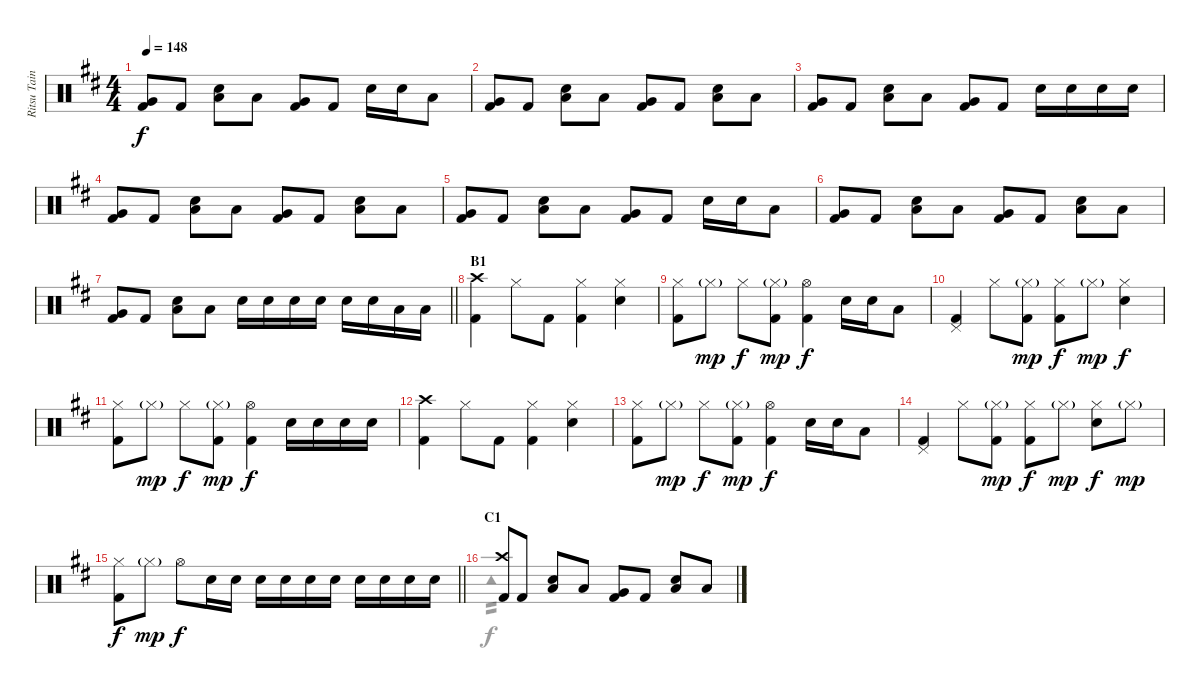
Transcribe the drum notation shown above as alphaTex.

\track ("Ritsu Tainaka" "Ritsu Tain") {instrument percussion}
\staff {score}
\articulation defaults
\voice
\ts (4 4)
\tempo 148
\clef neutral
\ks d
("Very Low Tom (hit)" "Kick (hit) 2").8{dy f} "Kick (hit) 2".8 ("Snare (hit) 2" "Low Floor Tom (hit)").8 "Low Tom (hit)".8 ("Very Low Tom (hit)" "Kick (hit) 2").8 "Kick (hit) 2".8 "Snare (hit) 2".16 "Snare (hit) 2".16 "Low Tom (hit)".8 |
("Very Low Tom (hit)" "Kick (hit) 2").8 "Kick (hit) 2".8 ("Snare (hit) 2" "Low Floor Tom (hit)").8 "Low Tom (hit)".8 ("Very Low Tom (hit)" "Kick (hit) 2").8 "Kick (hit) 2".8 ("Snare (hit) 2" "Low Floor Tom (hit)").8 "Low Tom (hit)".8 |
("Very Low Tom (hit)" "Kick (hit) 2").8 "Kick (hit) 2".8 ("Snare (hit) 2" "Low Floor Tom (hit)").8 "Low Tom (hit)".8 ("Very Low Tom (hit)" "Kick (hit) 2").8 "Kick (hit) 2".8 "Snare (hit) 2".16 "Snare (hit) 2".16 "Snare (hit) 2".16 "Snare (hit) 2".16 |
("Very Low Tom (hit)" "Kick (hit) 2").8 "Kick (hit) 2".8 ("Snare (hit) 2" "Low Floor Tom (hit)").8 "Low Tom (hit)".8 ("Very Low Tom (hit)" "Kick (hit) 2").8 "Kick (hit) 2".8 ("Snare (hit) 2" "Low Floor Tom (hit)").8 "Low Tom (hit)".8 |
("Very Low Tom (hit)" "Kick (hit) 2").8 "Kick (hit) 2".8 ("Snare (hit) 2" "Low Floor Tom (hit)").8 "Low Tom (hit)".8 ("Very Low Tom (hit)" "Kick (hit) 2").8 "Kick (hit) 2".8 "Snare (hit) 2".16 "Snare (hit) 2".16 "Low Tom (hit)".8 |
("Very Low Tom (hit)" "Kick (hit) 2").8 "Kick (hit) 2".8 ("Snare (hit) 2" "Low Floor Tom (hit)").8 "Low Tom (hit)".8 ("Very Low Tom (hit)" "Kick (hit) 2").8 "Kick (hit) 2".8 ("Snare (hit) 2" "Low Floor Tom (hit)").8 "Low Tom (hit)".8 |
\barLineRight lightlight
("Very Low Tom (hit)" "Kick (hit) 2").8 "Kick (hit) 2".8 ("Snare (hit) 2" "Low Floor Tom (hit)").8 "Low Tom (hit)".8 "Snare (hit) 2".16 "Snare (hit) 2".16 "Snare (hit) 2".16 "Snare (hit) 2".16 "Snare (hit) 2".16 "Snare (hit) 2".16 "Low Tom (hit)".16 "Low Tom (hit)".16 |
\section ("" "B1")
("Crash high (hit)" "Kick (hit) 2").4 "Hi-Hat (closed)".8 "Kick (hit) 2".8 ("Hi-Hat (closed)" "Kick (hit) 2").4 ("Hi-Hat (closed)" "Snare (hit) 2").4 |
("Hi-Hat (closed)" "Kick (hit) 2").8 "Hi-Hat (closed)"{g}.8{dy mp} "Hi-Hat (closed)".8{dy f} ("Hi-Hat (closed)"{g} "Kick (hit) 2").8{dy mp} ("Hi-Hat (open)" "Kick (hit) 2").4{dy f} "Snare (hit) 2".16 "Snare (hit) 2".16 "Low Tom (hit)".8 |
("Pedal Hi-Hat (hit)" "Kick (hit) 2").4 "Hi-Hat (closed)".8 ("Hi-Hat (closed)"{g} "Kick (hit) 2").8{dy mp} ("Hi-Hat (closed)" "Kick (hit) 2").8{dy f} "Hi-Hat (closed)"{g}.8{dy mp} ("Hi-Hat (closed)" "Snare (hit) 2").4{dy f} |
("Hi-Hat (closed)" "Kick (hit) 2").8 "Hi-Hat (closed)"{g}.8{dy mp} "Hi-Hat (closed)".8{dy f} ("Hi-Hat (closed)"{g} "Kick (hit) 2").8{dy mp} ("Hi-Hat (open)" "Kick (hit) 2").4{dy f} "Snare (hit) 2".16 "Snare (hit) 2".16 "Snare (hit) 2".16 "Snare (hit) 2".16 |
("Crash high (hit)" "Kick (hit) 2").4 "Hi-Hat (closed)".8 "Kick (hit) 2".8 ("Hi-Hat (closed)" "Kick (hit) 2").4 ("Hi-Hat (closed)" "Snare (hit) 2").4 |
("Hi-Hat (closed)" "Kick (hit) 2").8 "Hi-Hat (closed)"{g}.8{dy mp} "Hi-Hat (closed)".8{dy f} ("Hi-Hat (closed)"{g} "Kick (hit) 2").8{dy mp} ("Hi-Hat (open)" "Kick (hit) 2").4{dy f} "Snare (hit) 2".16 "Snare (hit) 2".16 "Low Tom (hit)".8 |
("Pedal Hi-Hat (hit)" "Kick (hit) 2").4 "Hi-Hat (closed)".8 ("Hi-Hat (closed)"{g} "Kick (hit) 2").8{dy mp} ("Hi-Hat (closed)" "Kick (hit) 2").8{dy f} "Hi-Hat (closed)"{g}.8{dy mp} ("Hi-Hat (closed)" "Snare (hit) 2").8{dy f} "Hi-Hat (closed)"{g}.8{dy mp} |
\barLineRight lightlight
("Hi-Hat (closed)" "Kick (hit) 2").8{dy f} "Hi-Hat (closed)"{g}.8{dy mp} "Hi-Hat (open)".8{dy f} "Snare (hit) 2".16 "Snare (hit) 2".16 "Snare (hit) 2".16 "Snare (hit) 2".16 "Snare (hit) 2".16 "Snare (hit) 2".16 "Snare (hit) 2".16 "Snare (hit) 2".16 "Snare (hit) 2".16 "Snare (hit) 2".16 |
\section ("" "C1")
("Crash high (hit)" "Kick (hit) 2").8 "Kick (hit) 2".8 ("Snare (hit) 2" "Low Floor Tom (hit)").8 "Low Tom (hit)".8 ("Very Low Tom (hit)" "Kick (hit) 2").8 "Kick (hit) 2".8 ("Snare (hit) 2" "Low Floor Tom (hit)").8 "Low Tom (hit)".8
\voice
\clef neutral
\ottava regular
\simile none
\ks d
|
|
|
|
|
|
\barLineRight lightlight
|
|
|
|
|
|
|
|
\barLineRight lightlight
|
"Tambourine (hit)".1{tp 2}
